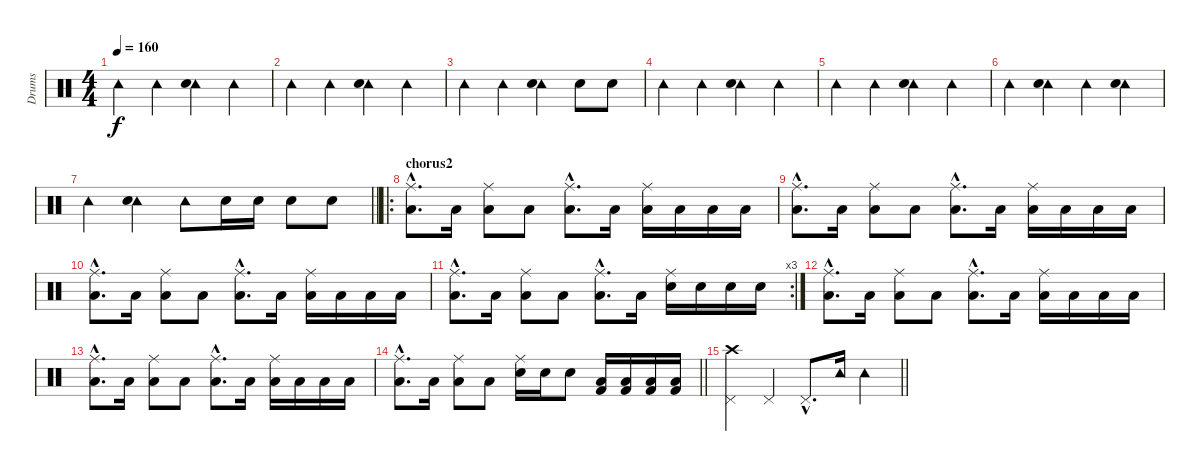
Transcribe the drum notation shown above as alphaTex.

\track ("Drums" "Drums") {instrument percussion}
\staff {score}
\articulation defaults
\ts (4 4)
\tempo 160
\clef neutral
\ks c "Tambourine (hit)".4{dy f} "Tambourine (hit)".4
("Tambourine (hit)" "Snare (hit) 2").4 "Tambourine (hit)".4 |
"Tambourine (hit)".4 "Tambourine (hit)".4 ("Tambourine (hit)" "Snare (hit) 2").4 "Tambourine (hit)".4 |
"Tambourine (hit)".4 "Tambourine (hit)".4 ("Tambourine (hit)" "Snare (hit) 2").4 "Electric Snare (hit)".8 "Electric Snare (hit)".8 |
"Tambourine (hit)".4 "Tambourine (hit)".4 ("Tambourine (hit)" "Snare (hit) 2").4 "Tambourine (hit)".4 |
"Tambourine (hit)".4 "Tambourine (hit)".4 ("Tambourine (hit)" "Snare (hit) 2").4 "Tambourine (hit)".4 |
"Tambourine (hit)".4 ("Tambourine (hit)" "Electric Snare (hit)").4 "Tambourine (hit)".4 ("Tambourine (hit)" "Snare (hit) 2").4 |
\barLineRight lightlight "Tambourine (hit)".4
("Tambourine (hit)" "Electric Snare (hit)").4 "Tambourine (hit)".8 "Snare (hit) 2".16 "Snare (hit) 2".16 "Snare (hit) 2".8 "Snare (hit) 2".8 |
\ro
\section ("" "chorus2")
("Ride (middle)"{hac} "Low Tom (hit)"{hac}).8{d} "Low Tom (hit)".16 ("Ride (middle)" "Low Tom (hit)").8 "Low Tom (hit)".8 ("Ride (middle)"{hac} "Low Tom (hit)"{hac}).8{d} "Low Tom (hit)".16 ("Ride (middle)" "Low Tom (hit)").16 "Low Tom (hit)".16 "Low Tom (hit)".16 "Low Tom (hit)".16 |
("Ride (middle)"{hac} "Low Tom (hit)"{hac}).8{d} "Low Tom (hit)".16 ("Ride (middle)" "Low Tom (hit)").8 "Low Tom (hit)".8 ("Ride (middle)"{hac} "Low Tom (hit)"{hac}).8{d} "Low Tom (hit)".16 ("Ride (middle)" "Low Tom (hit)").16 "Low Tom (hit)".16 "Low Tom (hit)".16 "Low Tom (hit)".16 |
("Ride (middle)"{hac} "Low Tom (hit)"{hac}).8{d} "Low Tom (hit)".16 ("Ride (middle)" "Low Tom (hit)").8 "Low Tom (hit)".8 ("Ride (middle)"{hac} "Low Tom (hit)"{hac}).8{d} "Low Tom (hit)".16 ("Ride (middle)" "Low Tom (hit)").16 "Low Tom (hit)".16 "Low Tom (hit)".16 "Low Tom (hit)".16 |
\rc 3
("Ride (middle)"{hac} "Low Tom (hit)"{hac}).8{d} "Low Tom (hit)".16 ("Ride (middle)" "Low Tom (hit)").8 "Low Tom (hit)".8 ("Ride (middle)"{hac} "Low Tom (hit)"{hac}).8{d} "Low Tom (hit)".16 ("Ride (middle)" "Snare (hit) 2").16 "Snare (hit) 2".16 "Snare (hit) 2".16 "Snare (hit) 2".16 |
("Ride (middle)"{hac} "Low Tom (hit)"{hac}).8{d} "Low Tom (hit)".16 ("Ride (middle)" "Low Tom (hit)").8 "Low Tom (hit)".8 ("Ride (middle)"{hac} "Low Tom (hit)"{hac}).8{d} "Low Tom (hit)".16 ("Ride (middle)" "Low Tom (hit)").16 "Low Tom (hit)".16 "Low Tom (hit)".16 "Low Tom (hit)".16 |
("Ride (middle)"{hac} "Low Tom (hit)"{hac}).8{d} "Low Tom (hit)".16 ("Ride (middle)" "Low Tom (hit)").8 "Low Tom (hit)".8 ("Ride (middle)"{hac} "Low Tom (hit)"{hac}).8{d} "Low Tom (hit)".16 ("Ride (middle)" "Low Tom (hit)").16 "Low Tom (hit)".16 "Low Tom (hit)".16 "Low Tom (hit)".16 |
\barLineRight lightlight
("Ride (middle)"{hac} "Low Tom (hit)"{hac}).8{d} "Low Tom (hit)".16 ("Ride (middle)" "Low Tom (hit)").8 "Low Tom (hit)".8 ("Ride (middle)" "Snare (hit) 2").16 "Snare (hit) 2".16 "Snare (hit) 2".8 ("Kick (hit) 2" "Low Tom (hit)").16 ("Kick (hit) 2" "Low Tom (hit)").16 ("Kick (hit) 2" "Low Tom (hit)").16 ("Kick (hit) 2" "Low Tom (hit)").16 |
\barLineRight lightlight
("Crash high (hit)" "Pedal Hi-Hat (hit)").4 "Pedal Hi-Hat (hit)".4 "Pedal Hi-Hat (hit)"{hac}.8{d} "Tambourine (hit)".16 "Tambourine (hit)".4
